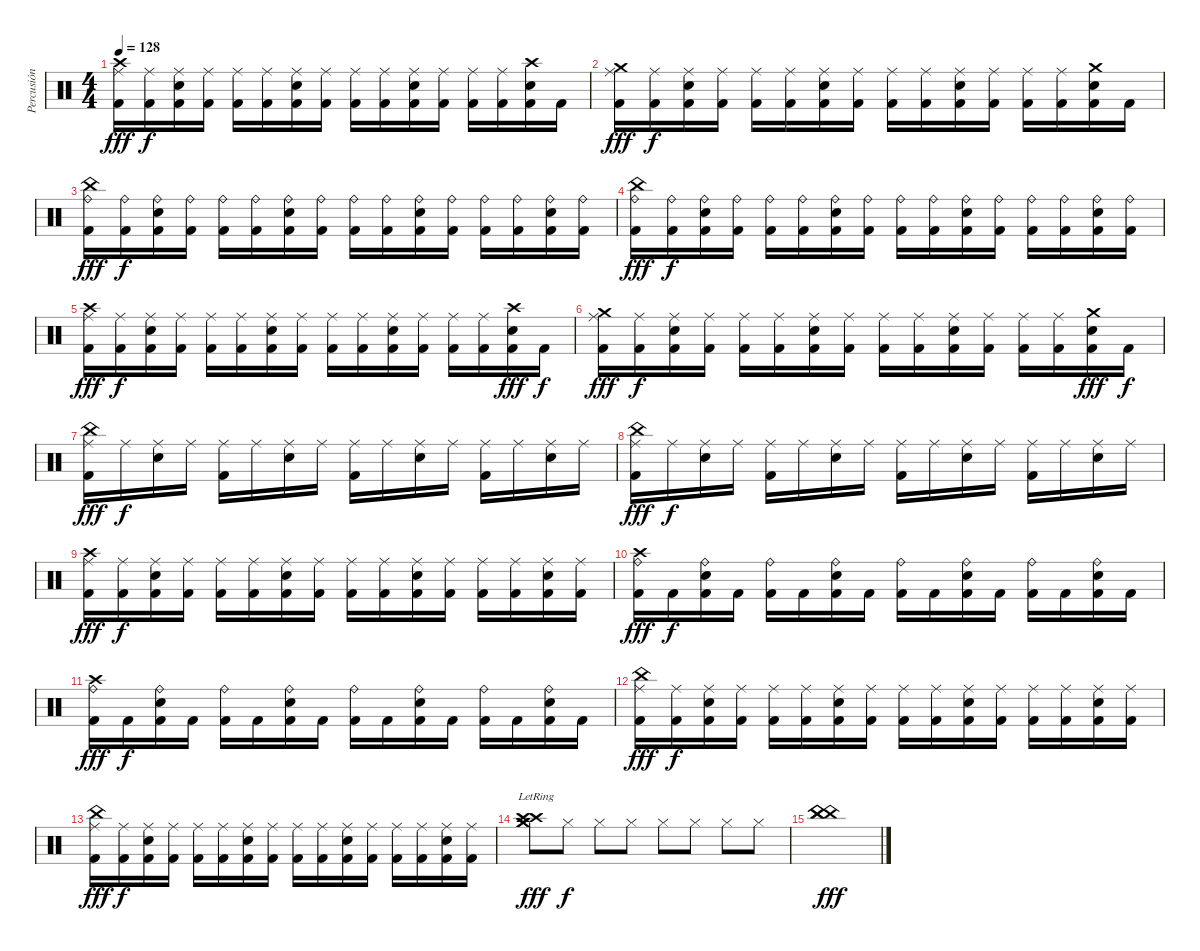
\track ("Percusión" "Percusión") {instrument percussion}
\staff {score}
\articulation defaults
\ts (4 4)
\tempo 128
\clef neutral
\ks c
("Crash high (hit)" "Ride (middle)" "Kick (hit) 2").16{dy fff} ("Ride (middle)" "Kick (hit) 2").16{dy f} ("Ride (middle)" "Kick (hit) 2" "Snare (hit) 2").16 ("Ride (middle)" "Kick (hit) 2").16 ("Ride (middle)" "Kick (hit) 2").16 ("Ride (middle)" "Kick (hit) 2").16 ("Ride (middle)" "Kick (hit) 2" "Snare (hit) 2").16 ("Ride (middle)" "Kick (hit) 2").16 ("Ride (middle)" "Kick (hit) 2").16 ("Ride (middle)" "Kick (hit) 2").16 ("Ride (middle)" "Kick (hit) 2" "Snare (hit) 2").16 ("Ride (middle)" "Kick (hit) 2").16 ("Ride (middle)" "Kick (hit) 2").16 ("Ride (middle)" "Kick (hit) 2").16 ("Crash high (hit)" "Kick (hit) 2" "Snare (hit) 2").16 "Kick (hit) 2".16 |
("Crash medium (hit)" "Ride (middle)" "Kick (hit) 2").16{dy fff} ("Ride (middle)" "Kick (hit) 2").16{dy f} ("Ride (middle)" "Kick (hit) 2" "Snare (hit) 2").16 ("Ride (middle)" "Kick (hit) 2").16 ("Ride (middle)" "Kick (hit) 2").16 ("Ride (middle)" "Kick (hit) 2").16 ("Ride (middle)" "Kick (hit) 2" "Snare (hit) 2").16 ("Ride (middle)" "Kick (hit) 2").16 ("Ride (middle)" "Kick (hit) 2").16 ("Ride (middle)" "Kick (hit) 2").16 ("Ride (middle)" "Kick (hit) 2" "Snare (hit) 2").16 ("Ride (middle)" "Kick (hit) 2").16 ("Ride (middle)" "Kick (hit) 2").16 ("Ride (middle)" "Kick (hit) 2").16 ("Crash medium (hit)" "Kick (hit) 2" "Snare (hit) 2").16 "Kick (hit) 2".16 |
("China (hit)" "Ride (bell)" "Kick (hit) 2").16{dy fff} ("Ride (bell)" "Kick (hit) 2").16{dy f} ("Ride (bell)" "Kick (hit) 2" "Snare (hit) 2").16 ("Ride (bell)" "Kick (hit) 2").16 ("Ride (bell)" "Kick (hit) 2").16 ("Ride (bell)" "Kick (hit) 2").16 ("Ride (bell)" "Kick (hit) 2" "Snare (hit) 2").16 ("Ride (bell)" "Kick (hit) 2").16 ("Ride (bell)" "Kick (hit) 2").16 ("Ride (bell)" "Kick (hit) 2").16 ("Ride (bell)" "Kick (hit) 2" "Snare (hit) 2").16 ("Ride (bell)" "Kick (hit) 2").16 ("Ride (bell)" "Kick (hit) 2").16 ("Ride (bell)" "Kick (hit) 2").16 ("Ride (bell)" "Kick (hit) 2" "Snare (hit) 2").16 ("Ride (bell)" "Kick (hit) 2").16 |
("China (hit)" "Ride (bell)" "Kick (hit) 2").16{dy fff} ("Ride (bell)" "Kick (hit) 2").16{dy f} ("Ride (bell)" "Kick (hit) 2" "Snare (hit) 2").16 ("Ride (bell)" "Kick (hit) 2").16 ("Ride (bell)" "Kick (hit) 2").16 ("Ride (bell)" "Kick (hit) 2").16 ("Ride (bell)" "Kick (hit) 2" "Snare (hit) 2").16 ("Ride (bell)" "Kick (hit) 2").16 ("Ride (bell)" "Kick (hit) 2").16 ("Ride (bell)" "Kick (hit) 2").16 ("Ride (bell)" "Kick (hit) 2" "Snare (hit) 2").16 ("Ride (bell)" "Kick (hit) 2").16 ("Ride (bell)" "Kick (hit) 2").16 ("Ride (bell)" "Kick (hit) 2").16 ("Ride (bell)" "Kick (hit) 2" "Snare (hit) 2").16 ("Ride (bell)" "Kick (hit) 2").16 |
("Crash high (hit)" "Ride (middle)" "Kick (hit) 2").16{dy fff} ("Ride (middle)" "Kick (hit) 2").16{dy f} ("Ride (middle)" "Kick (hit) 2" "Snare (hit) 2").16 ("Ride (middle)" "Kick (hit) 2").16 ("Ride (middle)" "Kick (hit) 2").16 ("Ride (middle)" "Kick (hit) 2").16 ("Ride (middle)" "Kick (hit) 2" "Snare (hit) 2").16 ("Ride (middle)" "Kick (hit) 2").16 ("Ride (middle)" "Kick (hit) 2").16 ("Ride (middle)" "Kick (hit) 2").16 ("Ride (middle)" "Kick (hit) 2" "Snare (hit) 2").16 ("Ride (middle)" "Kick (hit) 2").16 ("Ride (middle)" "Kick (hit) 2").16 ("Ride (middle)" "Kick (hit) 2").16 ("Crash high (hit)" "Kick (hit) 2" "Snare (hit) 2").16{dy fff} "Kick (hit) 2".16{dy f} |
("Crash medium (hit)" "Ride (middle)" "Kick (hit) 2").16{dy fff} ("Ride (middle)" "Kick (hit) 2").16{dy f} ("Ride (middle)" "Kick (hit) 2" "Snare (hit) 2").16 ("Ride (middle)" "Kick (hit) 2").16 ("Ride (middle)" "Kick (hit) 2").16 ("Ride (middle)" "Kick (hit) 2").16 ("Ride (middle)" "Kick (hit) 2" "Snare (hit) 2").16 ("Ride (middle)" "Kick (hit) 2").16 ("Ride (middle)" "Kick (hit) 2").16 ("Ride (middle)" "Kick (hit) 2").16 ("Ride (middle)" "Kick (hit) 2" "Snare (hit) 2").16 ("Ride (middle)" "Kick (hit) 2").16 ("Ride (middle)" "Kick (hit) 2").16 ("Ride (middle)" "Kick (hit) 2").16 ("Crash medium (hit)" "Kick (hit) 2" "Snare (hit) 2").16{dy fff} "Kick (hit) 2".16{dy f} |
("China (hit)" "Ride (middle)" "Kick (hit) 2").16{dy fff} "Ride (middle)".16{dy f} ("Ride (middle)" "Snare (hit) 2").16 "Ride (middle)".16 ("Ride (middle)" "Kick (hit) 2").16 "Ride (middle)".16 ("Ride (middle)" "Snare (hit) 2").16 "Ride (middle)".16 ("Ride (middle)" "Kick (hit) 2").16 "Ride (middle)".16 ("Ride (middle)" "Snare (hit) 2").16 "Ride (middle)".16 ("Ride (middle)" "Kick (hit) 2").16 "Ride (middle)".16 ("Ride (middle)" "Snare (hit) 2").16 "Ride (middle)".16 |
("China (hit)" "Ride (middle)" "Kick (hit) 2").16{dy fff} "Ride (middle)".16{dy f} ("Ride (middle)" "Snare (hit) 2").16 "Ride (middle)".16 ("Ride (middle)" "Kick (hit) 2").16 "Ride (middle)".16 ("Ride (middle)" "Snare (hit) 2").16 "Ride (middle)".16 ("Ride (middle)" "Kick (hit) 2").16 "Ride (middle)".16 ("Ride (middle)" "Snare (hit) 2").16 "Ride (middle)".16 ("Ride (middle)" "Kick (hit) 2").16 "Ride (middle)".16 ("Ride (middle)" "Snare (hit) 2").16 "Ride (middle)".16 |
("Crash high (hit)" "Ride (middle)" "Kick (hit) 2").16{dy fff} ("Ride (middle)" "Kick (hit) 2").16{dy f} ("Ride (middle)" "Kick (hit) 2" "Snare (hit) 2").16 ("Ride (middle)" "Kick (hit) 2").16 ("Ride (middle)" "Kick (hit) 2").16 ("Ride (middle)" "Kick (hit) 2").16 ("Ride (middle)" "Kick (hit) 2" "Snare (hit) 2").16 ("Ride (middle)" "Kick (hit) 2").16 ("Ride (middle)" "Kick (hit) 2").16 ("Ride (middle)" "Kick (hit) 2").16 ("Ride (middle)" "Kick (hit) 2" "Snare (hit) 2").16 ("Ride (middle)" "Kick (hit) 2").16 ("Ride (middle)" "Kick (hit) 2").16 ("Ride (middle)" "Kick (hit) 2").16 ("Ride (middle)" "Kick (hit) 2" "Snare (hit) 2").16 ("Ride (middle)" "Kick (hit) 2").16 |
("Crash high (hit)" "Ride (bell)" "Kick (hit) 2").16{dy fff} "Kick (hit) 2".16{dy f} ("Ride (bell)" "Kick (hit) 2" "Snare (hit) 2").16 "Kick (hit) 2".16 ("Ride (bell)" "Kick (hit) 2").16 "Kick (hit) 2".16 ("Ride (bell)" "Kick (hit) 2" "Snare (hit) 2").16 "Kick (hit) 2".16 ("Ride (bell)" "Kick (hit) 2").16 "Kick (hit) 2".16 ("Ride (bell)" "Kick (hit) 2" "Snare (hit) 2").16 "Kick (hit) 2".16 ("Ride (bell)" "Kick (hit) 2").16 "Kick (hit) 2".16 ("Ride (bell)" "Kick (hit) 2" "Snare (hit) 2").16 "Kick (hit) 2".16 |
("Crash high (hit)" "Ride (bell)" "Kick (hit) 2").16{dy fff} "Kick (hit) 2".16{dy f} ("Ride (bell)" "Kick (hit) 2" "Snare (hit) 2").16 "Kick (hit) 2".16 ("Ride (bell)" "Kick (hit) 2").16 "Kick (hit) 2".16 ("Ride (bell)" "Kick (hit) 2" "Snare (hit) 2").16 "Kick (hit) 2".16 ("Ride (bell)" "Kick (hit) 2").16 "Kick (hit) 2".16 ("Ride (bell)" "Kick (hit) 2" "Snare (hit) 2").16 "Kick (hit) 2".16 ("Ride (bell)" "Kick (hit) 2").16 "Kick (hit) 2".16 ("Ride (bell)" "Kick (hit) 2" "Snare (hit) 2").16 "Kick (hit) 2".16 |
("China (hit)" "Ride (middle)" "Kick (hit) 2").16{dy fff} ("Ride (middle)" "Kick (hit) 2").16{dy f} ("Ride (middle)" "Kick (hit) 2" "Snare (hit) 2").16 ("Ride (middle)" "Kick (hit) 2").16 ("Ride (middle)" "Kick (hit) 2").16 ("Ride (middle)" "Kick (hit) 2").16 ("Ride (middle)" "Kick (hit) 2" "Snare (hit) 2").16 ("Ride (middle)" "Kick (hit) 2").16 ("Ride (middle)" "Kick (hit) 2").16 ("Ride (middle)" "Kick (hit) 2").16 ("Ride (middle)" "Kick (hit) 2" "Snare (hit) 2").16 ("Ride (middle)" "Kick (hit) 2").16 ("Ride (middle)" "Kick (hit) 2").16 ("Ride (middle)" "Kick (hit) 2").16 ("Ride (middle)" "Kick (hit) 2" "Snare (hit) 2").16 ("Ride (middle)" "Kick (hit) 2").16 |
("China (hit)" "Ride (middle)" "Kick (hit) 2").16{dy fff} ("Ride (middle)" "Kick (hit) 2").16{dy f} ("Ride (middle)" "Kick (hit) 2" "Snare (hit) 2").16 ("Ride (middle)" "Kick (hit) 2").16 ("Ride (middle)" "Kick (hit) 2").16 ("Ride (middle)" "Kick (hit) 2").16 ("Ride (middle)" "Kick (hit) 2" "Snare (hit) 2").16 ("Ride (middle)" "Kick (hit) 2").16 ("Ride (middle)" "Kick (hit) 2").16 ("Ride (middle)" "Kick (hit) 2").16 ("Ride (middle)" "Kick (hit) 2" "Snare (hit) 2").16 ("Ride (middle)" "Kick (hit) 2").16 ("Ride (middle)" "Kick (hit) 2").16 ("Ride (middle)" "Kick (hit) 2").16 ("Ride (middle)" "Kick (hit) 2" "Snare (hit) 2").16 ("Ride (middle)" "Kick (hit) 2").16 |
("Crash high (hit)"{lr} "Crash high (hit)"{lr} "Crash medium (hit)"{lr} "Crash medium (hit)"{lr}).8{dy fff} "Hi-Hat (closed)".8{dy f} "Hi-Hat (closed)".8 "Hi-Hat (closed)".8 "Hi-Hat (closed)".8 "Hi-Hat (closed)".8 "Hi-Hat (closed)".8 "Hi-Hat (closed)".8 |
("China (hit)" "China (hit)" "China (hit)").1{dy fff}
